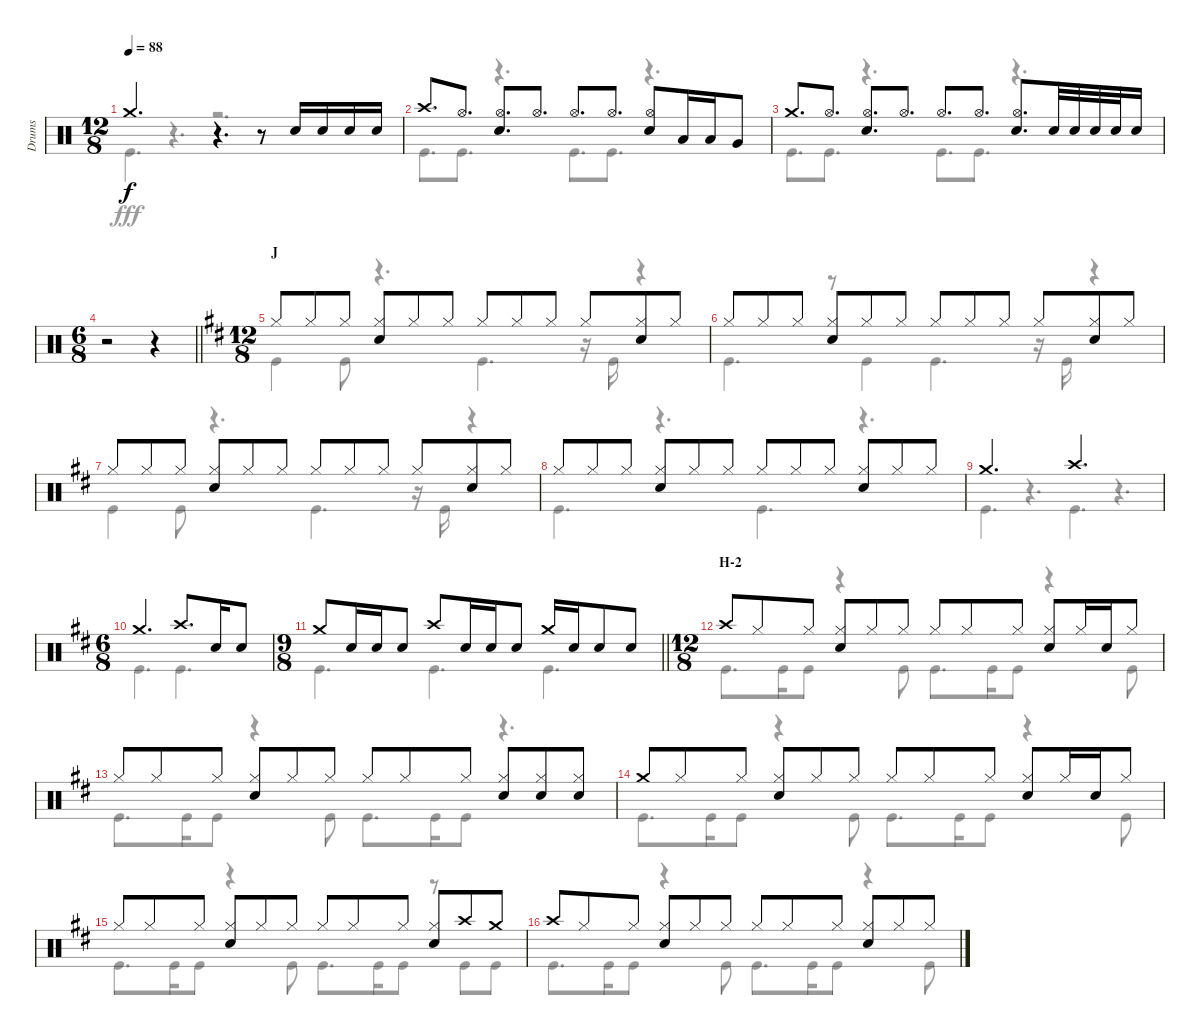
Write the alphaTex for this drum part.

\track ("Drums" "Drums") {instrument percussion}
\staff {score}
\articulation defaults
\voice
\ts (12 8)
\tempo 88
\clef neutral
\ks c "Crash medium (hit)".2{d dy f}
r.4{d} r.8 "Snare (hit) 2".16 "Snare (hit) 2".16 "Snare (hit) 2".16 "Snare (hit) 2".16 |
"Crash high (hit)".8{d} "Hi-Hat (open)".8{d} ("Hi-Hat (open)" "Snare (hit) 2").8{d} "Hi-Hat (open)".8{d} "Hi-Hat (open)".8{d} "Hi-Hat (open)".8{d} ("Hi-Hat (open)" "Snare (hit) 2").8 "Low Tom (hit)".16 "Low Tom (hit)".16 "Very Low Tom (hit)".8 |
"Crash medium (hit)".8{d} "Hi-Hat (open)".8{d} ("Hi-Hat (open)" "Snare (hit) 2").8{d} "Hi-Hat (open)".8{d} "Hi-Hat (open)".8{d} "Hi-Hat (open)".8{d} ("Hi-Hat (open)" "Snare (hit) 2").8{d} "Snare (hit) 2".32 "Snare (hit) 2".32 "Snare (hit) 2".32 "Snare (hit) 2".32 "Snare (hit) 2".16 |
\ts (6 8)
\barLineRight lightlight
r.2 r.4 |
\ts (12 8)
\section ("" "J")
\ks d "Hi-Hat (closed)".8 "Hi-Hat (closed)".8 "Hi-Hat (closed)".8
("Hi-Hat (closed)" "Snare (hit) 2").8 "Hi-Hat (closed)".8 "Hi-Hat (closed)".8 "Hi-Hat (closed)".8 "Hi-Hat (closed)".8 "Hi-Hat (closed)".8 "Hi-Hat (closed)".8 ("Hi-Hat (closed)" "Snare (hit) 2").8 "Hi-Hat (closed)".8 |
"Hi-Hat (closed)".8 "Hi-Hat (closed)".8 "Hi-Hat (closed)".8 ("Hi-Hat (closed)" "Snare (hit) 2").8 "Hi-Hat (closed)".8 "Hi-Hat (closed)".8 "Hi-Hat (closed)".8 "Hi-Hat (closed)".8 "Hi-Hat (closed)".8 "Hi-Hat (closed)".8 ("Hi-Hat (closed)" "Snare (hit) 2").8 "Hi-Hat (closed)".8 |
"Hi-Hat (closed)".8 "Hi-Hat (closed)".8 "Hi-Hat (closed)".8 ("Hi-Hat (closed)" "Snare (hit) 2").8 "Hi-Hat (closed)".8 "Hi-Hat (closed)".8 "Hi-Hat (closed)".8 "Hi-Hat (closed)".8 "Hi-Hat (closed)".8 "Hi-Hat (closed)".8 ("Hi-Hat (closed)" "Snare (hit) 2").8 "Hi-Hat (closed)".8 |
"Hi-Hat (closed)".8 "Hi-Hat (closed)".8 "Hi-Hat (closed)".8 ("Hi-Hat (closed)" "Snare (hit) 2").8 "Hi-Hat (closed)".8 "Hi-Hat (closed)".8 "Hi-Hat (closed)".8 "Hi-Hat (closed)".8 "Hi-Hat (closed)".8 ("Hi-Hat (closed)" "Snare (hit) 2").8 "Hi-Hat (closed)".8 "Hi-Hat (closed)".8 |
"Crash medium (hit)".2{d} "Crash high (hit)".2{d} |
\ts (6 8)
"Crash medium (hit)".4{d} "Crash high (hit)".8{d} "Snare (hit) 2".16 "Snare (hit) 2".8 |
\ts (9 8)
\barLineRight lightlight "Crash medium (hit)".8 "Snare (hit) 2".16 "Snare (hit) 2".16 "Snare (hit) 2".8 "Crash high (hit)".8 "Snare (hit) 2".16 "Snare (hit) 2".16 "Snare (hit) 2".8 "Crash medium (hit)".16 "Snare (hit) 2".16 "Snare (hit) 2".8 "Snare (hit) 2".8
|
\ts (12 8)
\section ("" "H-2")
"Crash high (hit)".8 "Hi-Hat (closed)".8 "Hi-Hat (closed)".8 ("Hi-Hat (closed)" "Snare (hit) 2").8 "Hi-Hat (closed)".8 "Hi-Hat (closed)".8 "Hi-Hat (closed)".8 "Hi-Hat (closed)".8 "Hi-Hat (closed)".8 ("Hi-Hat (closed)" "Snare (hit) 2").8 "Hi-Hat (closed)".16 "Snare (hit) 2".16 "Hi-Hat (closed)".8 |
"Hi-Hat (closed)".8 "Hi-Hat (closed)".8 "Hi-Hat (closed)".8 ("Hi-Hat (closed)" "Snare (hit) 2").8 "Hi-Hat (closed)".8 "Hi-Hat (closed)".8 "Hi-Hat (closed)".8 "Hi-Hat (closed)".8 "Hi-Hat (closed)".8 ("Hi-Hat (closed)" "Snare (hit) 2").8 ("Hi-Hat (closed)" "Snare (hit) 2").8 ("Hi-Hat (closed)" "Snare (hit) 2").8 |
"Crash medium (hit)".8 "Hi-Hat (closed)".8 "Hi-Hat (closed)".8 ("Hi-Hat (closed)" "Snare (hit) 2").8 "Hi-Hat (closed)".8 "Hi-Hat (closed)".8 "Hi-Hat (closed)".8 "Hi-Hat (closed)".8 "Hi-Hat (closed)".8 ("Hi-Hat (closed)" "Snare (hit) 2").8 "Hi-Hat (closed)".16 "Snare (hit) 2".16 "Hi-Hat (closed)".8 |
"Hi-Hat (closed)".8 "Hi-Hat (closed)".8 "Hi-Hat (closed)".8 ("Hi-Hat (closed)" "Snare (hit) 2").8 "Hi-Hat (closed)".8 "Hi-Hat (closed)".8 "Hi-Hat (closed)".8 "Hi-Hat (closed)".8 "Hi-Hat (closed)".8 ("Hi-Hat (closed)" "Snare (hit) 2").8 "Crash high (hit)".8 "Crash medium (hit)".8 |
"Crash high (hit)".8 "Hi-Hat (closed)".8 "Hi-Hat (closed)".8 ("Hi-Hat (closed)" "Snare (hit) 2").8 "Hi-Hat (closed)".8 "Hi-Hat (closed)".8 "Hi-Hat (closed)".8 "Hi-Hat (closed)".8 "Hi-Hat (closed)".8 ("Hi-Hat (closed)" "Snare (hit) 2").8 "Hi-Hat (closed)".8 "Hi-Hat (closed)".8
\voice
\clef neutral
\ottava regular
\simile none
\ks c "Kick (hit)".4{d dy fff}
r.4{d} r.2{d} |
"Kick (hit)".8{d} "Kick (hit)".8{d} r.4{d} "Kick (hit)".8{d} "Kick (hit)".8{d} r.4{d} |
"Kick (hit)".8{d} "Kick (hit)".8{d} r.4{d} "Kick (hit)".8{d} "Kick (hit)".8{d} r.4{d} |
\barLineRight lightlight
r.2 r.4 |
\ks d "Kick (hit)".4 "Kick (hit)".8
r.4{d} "Kick (hit)".4{d} r.16 "Kick (hit)".16 r.4 |
"Kick (hit)".4{d} r.8 "Kick (hit)".4 "Kick (hit)".4{d} r.16 "Kick (hit)".16 r.4 |
"Kick (hit)".4 "Kick (hit)".8 r.4{d} "Kick (hit)".4{d} r.16 "Kick (hit)".16 r.4 |
"Kick (hit)".4{d} r.4{d} "Kick (hit)".4{d} r.4{d} |
"Kick (hit)".4{d} r.4{d} "Kick (hit)".4{d} r.4{d} |
"Kick (hit)".4{d} "Kick (hit)".4{d} |
\barLineRight lightlight "Kick (hit)".4{d} "Kick (hit)".4{d} "Kick (hit)".4{d}
|
"Kick (hit)".8{d} "Kick (hit)".16 "Kick (hit)".8 r.4 "Kick (hit)".8 "Kick (hit)".8{d} "Kick (hit)".16 "Kick (hit)".8 r.4 "Kick (hit)".8 |
"Kick (hit)".8{d} "Kick (hit)".16 "Kick (hit)".8 r.4 "Kick (hit)".8 "Kick (hit)".8{d} "Kick (hit)".16 "Kick (hit)".8 r.4{d} |
"Kick (hit)".8{d} "Kick (hit)".16 "Kick (hit)".8 r.4 "Kick (hit)".8 "Kick (hit)".8{d} "Kick (hit)".16 "Kick (hit)".8 r.4 "Kick (hit)".8 |
"Kick (hit)".8{d} "Kick (hit)".16 "Kick (hit)".8 r.4 "Kick (hit)".8 "Kick (hit)".8{d} "Kick (hit)".16 "Kick (hit)".8 r.8 "Kick (hit)".8 "Kick (hit)".8 |
"Kick (hit)".8{d} "Kick (hit)".16 "Kick (hit)".8 r.4 "Kick (hit)".8 "Kick (hit)".8{d} "Kick (hit)".16 "Kick (hit)".8 r.4 "Kick (hit)".8
